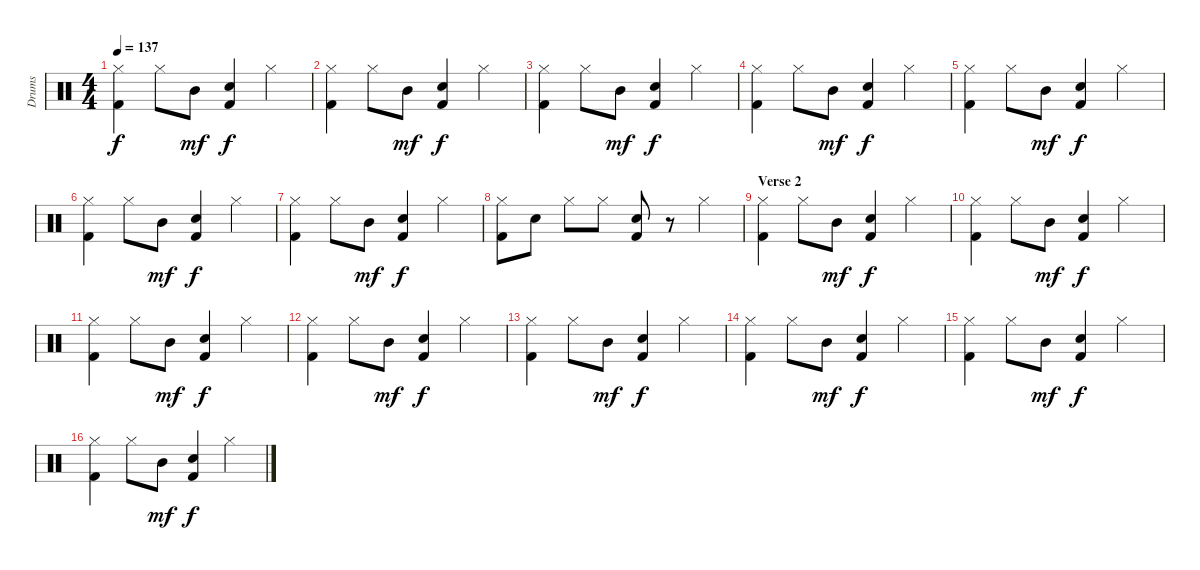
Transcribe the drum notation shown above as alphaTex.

\track ("Drums" "Drums") {instrument percussion}
\staff {score}
\articulation defaults
\ts (4 4)
\tempo 137
\clef neutral
\ks c
("Hi-Hat (closed)" "Kick (hit) 2").4{dy f} "Hi-Hat (closed)".8 "Mid Tom (hit)".8{dy mf} ("Electric Snare (hit)" "Kick (hit) 2").4{dy f} "Hi-Hat (closed)".4 |
("Hi-Hat (closed)" "Kick (hit) 2").4 "Hi-Hat (closed)".8 "Mid Tom (hit)".8{dy mf} ("Electric Snare (hit)" "Kick (hit) 2").4{dy f} "Hi-Hat (closed)".4 |
("Hi-Hat (closed)" "Kick (hit) 2").4 "Hi-Hat (closed)".8 "Mid Tom (hit)".8{dy mf} ("Electric Snare (hit)" "Kick (hit) 2").4{dy f} "Hi-Hat (closed)".4 |
("Hi-Hat (closed)" "Kick (hit) 2").4 "Hi-Hat (closed)".8 "Mid Tom (hit)".8{dy mf} ("Electric Snare (hit)" "Kick (hit) 2").4{dy f} "Hi-Hat (closed)".4 |
("Hi-Hat (closed)" "Kick (hit) 2").4 "Hi-Hat (closed)".8 "Mid Tom (hit)".8{dy mf} ("Electric Snare (hit)" "Kick (hit) 2").4{dy f} "Hi-Hat (closed)".4 |
("Hi-Hat (closed)" "Kick (hit) 2").4 "Hi-Hat (closed)".8 "Mid Tom (hit)".8{dy mf} ("Electric Snare (hit)" "Kick (hit) 2").4{dy f} "Hi-Hat (closed)".4 |
("Hi-Hat (closed)" "Kick (hit) 2").4 "Hi-Hat (closed)".8 "Mid Tom (hit)".8{dy mf} ("Electric Snare (hit)" "Kick (hit) 2").4{dy f} "Hi-Hat (closed)".4 |
("Hi-Hat (closed)" "Kick (hit) 2").8 "Electric Snare (hit)".8 "Hi-Hat (closed)".8 "Hi-Hat (closed)".8 ("Electric Snare (hit)" "Kick (hit) 2").8 r.8 "Hi-Hat (closed)".4 |
\section ("" "Verse 2")
("Hi-Hat (closed)" "Kick (hit) 2").4 "Hi-Hat (closed)".8 "Mid Tom (hit)".8{dy mf} ("Electric Snare (hit)" "Kick (hit) 2").4{dy f} "Hi-Hat (closed)".4 |
("Hi-Hat (closed)" "Kick (hit) 2").4 "Hi-Hat (closed)".8 "Mid Tom (hit)".8{dy mf} ("Electric Snare (hit)" "Kick (hit) 2").4{dy f} "Hi-Hat (closed)".4 |
("Hi-Hat (closed)" "Kick (hit) 2").4 "Hi-Hat (closed)".8 "Mid Tom (hit)".8{dy mf} ("Electric Snare (hit)" "Kick (hit) 2").4{dy f} "Hi-Hat (closed)".4 |
("Hi-Hat (closed)" "Kick (hit) 2").4 "Hi-Hat (closed)".8 "Mid Tom (hit)".8{dy mf} ("Electric Snare (hit)" "Kick (hit) 2").4{dy f} "Hi-Hat (closed)".4 |
("Hi-Hat (closed)" "Kick (hit) 2").4 "Hi-Hat (closed)".8 "Mid Tom (hit)".8{dy mf} ("Electric Snare (hit)" "Kick (hit) 2").4{dy f} "Hi-Hat (closed)".4 |
("Hi-Hat (closed)" "Kick (hit) 2").4 "Hi-Hat (closed)".8 "Mid Tom (hit)".8{dy mf} ("Electric Snare (hit)" "Kick (hit) 2").4{dy f} "Hi-Hat (closed)".4 |
("Hi-Hat (closed)" "Kick (hit) 2").4 "Hi-Hat (closed)".8 "Mid Tom (hit)".8{dy mf} ("Electric Snare (hit)" "Kick (hit) 2").4{dy f} "Hi-Hat (closed)".4 |
("Hi-Hat (closed)" "Kick (hit) 2").4 "Hi-Hat (closed)".8 "Mid Tom (hit)".8{dy mf} ("Electric Snare (hit)" "Kick (hit) 2").4{dy f} "Hi-Hat (closed)".4
